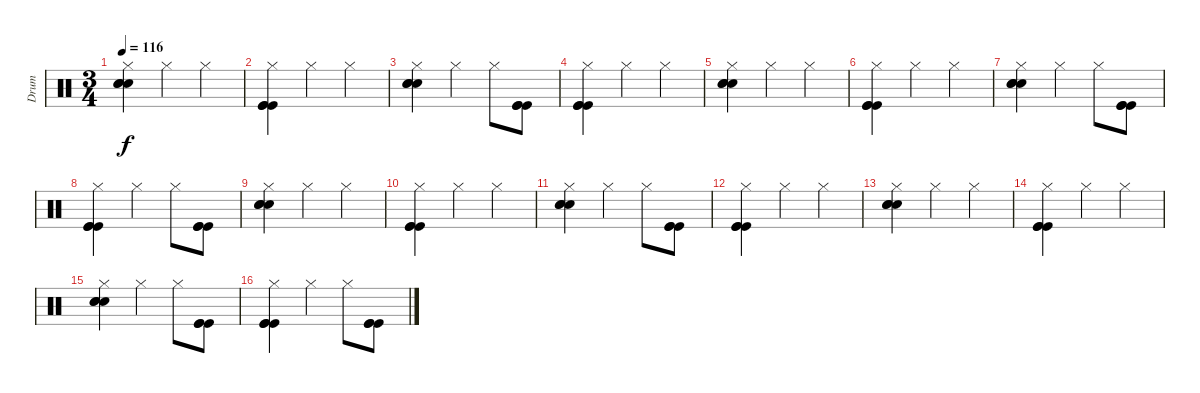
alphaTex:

\track ("Drum" "Drum") {instrument percussion}
\staff {score}
\articulation defaults
\ts (3 4)
\tempo 116
\clef neutral
\ks c
("Hi-Hat (closed)" "Electric Snare (hit)" "Electric Snare (hit)" "Electric Snare (hit)").4{dy f} "Hi-Hat (closed)".4 "Hi-Hat (closed)".4 |
("Hi-Hat (closed)" "Kick (hit)" "Kick (hit)" "Kick (hit)").4 "Hi-Hat (closed)".4 "Hi-Hat (closed)".4 |
("Hi-Hat (closed)" "Electric Snare (hit)" "Electric Snare (hit)" "Electric Snare (hit)").4 "Hi-Hat (closed)".4 "Hi-Hat (closed)".8 ("Kick (hit)" "Kick (hit)" "Kick (hit)").8 |
("Hi-Hat (closed)" "Kick (hit)" "Kick (hit)" "Kick (hit)").4 "Hi-Hat (closed)".4 "Hi-Hat (closed)".4 |
("Hi-Hat (closed)" "Electric Snare (hit)" "Electric Snare (hit)" "Electric Snare (hit)").4 "Hi-Hat (closed)".4 "Hi-Hat (closed)".4 |
("Hi-Hat (closed)" "Kick (hit)" "Kick (hit)" "Kick (hit)").4 "Hi-Hat (closed)".4 "Hi-Hat (closed)".4 |
("Hi-Hat (closed)" "Electric Snare (hit)" "Electric Snare (hit)" "Electric Snare (hit)").4 "Hi-Hat (closed)".4 "Hi-Hat (closed)".8 ("Kick (hit)" "Kick (hit)" "Kick (hit)").8 |
("Hi-Hat (closed)" "Kick (hit)" "Kick (hit)" "Kick (hit)").4 "Hi-Hat (closed)".4 "Hi-Hat (closed)".8 ("Kick (hit)" "Kick (hit)" "Kick (hit)").8 |
("Hi-Hat (closed)" "Electric Snare (hit)" "Electric Snare (hit)" "Electric Snare (hit)").4 "Hi-Hat (closed)".4 "Hi-Hat (closed)".4 |
("Hi-Hat (closed)" "Kick (hit)" "Kick (hit)" "Kick (hit)").4 "Hi-Hat (closed)".4 "Hi-Hat (closed)".4 |
("Hi-Hat (closed)" "Electric Snare (hit)" "Electric Snare (hit)" "Electric Snare (hit)").4 "Hi-Hat (closed)".4 "Hi-Hat (closed)".8 ("Kick (hit)" "Kick (hit)" "Kick (hit)").8 |
("Hi-Hat (closed)" "Kick (hit)" "Kick (hit)" "Kick (hit)").4 "Hi-Hat (closed)".4 "Hi-Hat (closed)".4 |
("Hi-Hat (closed)" "Electric Snare (hit)" "Electric Snare (hit)" "Electric Snare (hit)").4 "Hi-Hat (closed)".4 "Hi-Hat (closed)".4 |
("Hi-Hat (closed)" "Kick (hit)" "Kick (hit)" "Kick (hit)").4 "Hi-Hat (closed)".4 "Hi-Hat (closed)".4 |
("Hi-Hat (closed)" "Electric Snare (hit)" "Electric Snare (hit)" "Electric Snare (hit)").4 "Hi-Hat (closed)".4 "Hi-Hat (closed)".8 ("Kick (hit)" "Kick (hit)" "Kick (hit)").8 |
("Hi-Hat (closed)" "Kick (hit)" "Kick (hit)" "Kick (hit)").4 "Hi-Hat (closed)".4 "Hi-Hat (closed)".8 ("Kick (hit)" "Kick (hit)" "Kick (hit)").8
